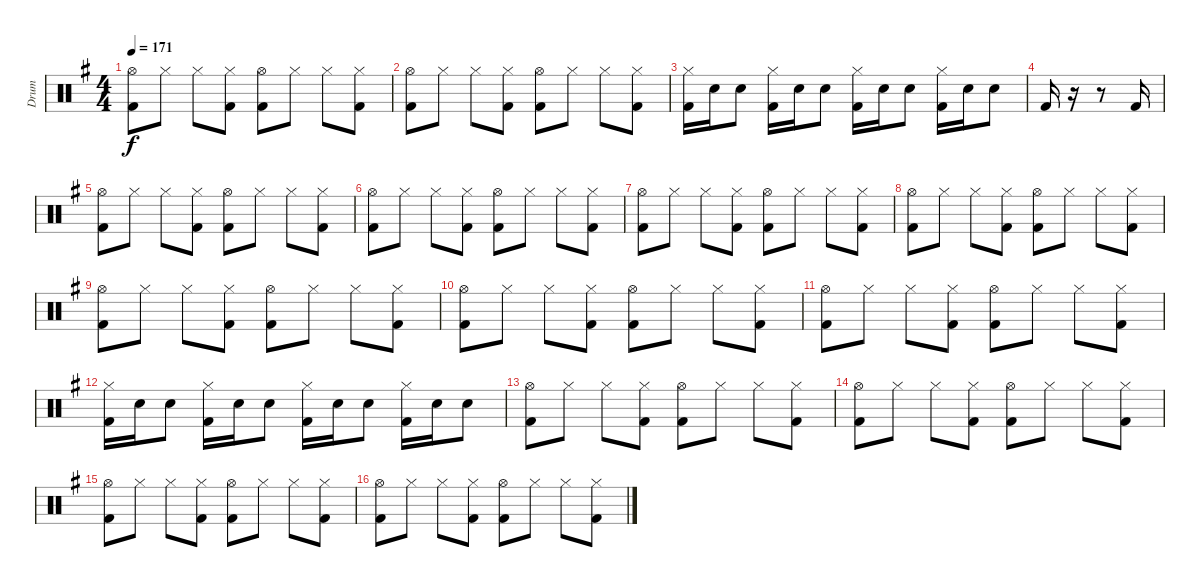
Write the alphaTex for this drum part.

\track ("Drum" "Drum") {instrument percussion}
\staff {score}
\articulation defaults
\ts (4 4)
\tempo 171
\clef neutral
\ks g
("Hi-Hat (open)" "Kick (hit) 2").8{dy f} "Hi-Hat (closed)".8 "Hi-Hat (closed)".8 ("Hi-Hat (closed)" "Kick (hit) 2").8 ("Hi-Hat (open)" "Kick (hit) 2").8 "Hi-Hat (closed)".8 "Hi-Hat (closed)".8 ("Hi-Hat (closed)" "Kick (hit) 2").8 |
("Hi-Hat (open)" "Kick (hit) 2").8 "Hi-Hat (closed)".8 "Hi-Hat (closed)".8 ("Hi-Hat (closed)" "Kick (hit) 2").8 ("Hi-Hat (open)" "Kick (hit) 2").8 "Hi-Hat (closed)".8 "Hi-Hat (closed)".8 ("Hi-Hat (closed)" "Kick (hit) 2").8 |
("Hi-Hat (closed)" "Kick (hit) 2").16 "Snare (hit) 2".16 "Snare (hit) 2".8 ("Hi-Hat (closed)" "Kick (hit) 2").16 "Snare (hit) 2".16 "Snare (hit) 2".8 ("Hi-Hat (closed)" "Kick (hit) 2").16 "Snare (hit) 2".16 "Snare (hit) 2".8 ("Hi-Hat (closed)" "Kick (hit) 2").16 "Snare (hit) 2".16 "Snare (hit) 2".8 |
"Kick (hit) 2".16 r.16 r.8 "Kick (hit) 2".16 |
("Hi-Hat (open)" "Kick (hit) 2").8 "Hi-Hat (closed)".8 "Hi-Hat (closed)".8 ("Hi-Hat (closed)" "Kick (hit) 2").8 ("Hi-Hat (open)" "Kick (hit) 2").8 "Hi-Hat (closed)".8 "Hi-Hat (closed)".8 ("Hi-Hat (closed)" "Kick (hit) 2").8 |
("Hi-Hat (open)" "Kick (hit) 2").8 "Hi-Hat (closed)".8 "Hi-Hat (closed)".8 ("Hi-Hat (closed)" "Kick (hit) 2").8 ("Hi-Hat (open)" "Kick (hit) 2").8 "Hi-Hat (closed)".8 "Hi-Hat (closed)".8 ("Hi-Hat (closed)" "Kick (hit) 2").8 |
("Hi-Hat (open)" "Kick (hit) 2").8 "Hi-Hat (closed)".8 "Hi-Hat (closed)".8 ("Hi-Hat (closed)" "Kick (hit) 2").8 ("Hi-Hat (open)" "Kick (hit) 2").8 "Hi-Hat (closed)".8 "Hi-Hat (closed)".8 ("Hi-Hat (closed)" "Kick (hit) 2").8 |
("Hi-Hat (open)" "Kick (hit) 2").8 "Hi-Hat (closed)".8 "Hi-Hat (closed)".8 ("Hi-Hat (closed)" "Kick (hit) 2").8 ("Hi-Hat (open)" "Kick (hit) 2").8 "Hi-Hat (closed)".8 "Hi-Hat (closed)".8 ("Hi-Hat (closed)" "Kick (hit) 2").8 |
("Hi-Hat (open)" "Kick (hit) 2").8 "Hi-Hat (closed)".8 "Hi-Hat (closed)".8 ("Hi-Hat (closed)" "Kick (hit) 2").8 ("Hi-Hat (open)" "Kick (hit) 2").8 "Hi-Hat (closed)".8 "Hi-Hat (closed)".8 ("Hi-Hat (closed)" "Kick (hit) 2").8 |
("Hi-Hat (open)" "Kick (hit) 2").8 "Hi-Hat (closed)".8 "Hi-Hat (closed)".8 ("Hi-Hat (closed)" "Kick (hit) 2").8 ("Hi-Hat (open)" "Kick (hit) 2").8 "Hi-Hat (closed)".8 "Hi-Hat (closed)".8 ("Hi-Hat (closed)" "Kick (hit) 2").8 |
("Hi-Hat (open)" "Kick (hit) 2").8 "Hi-Hat (closed)".8 "Hi-Hat (closed)".8 ("Hi-Hat (closed)" "Kick (hit) 2").8 ("Hi-Hat (open)" "Kick (hit) 2").8 "Hi-Hat (closed)".8 "Hi-Hat (closed)".8 ("Hi-Hat (closed)" "Kick (hit) 2").8 |
("Hi-Hat (closed)" "Kick (hit) 2").16 "Snare (hit) 2".16 "Snare (hit) 2".8 ("Hi-Hat (closed)" "Kick (hit) 2").16 "Snare (hit) 2".16 "Snare (hit) 2".8 ("Hi-Hat (closed)" "Kick (hit) 2").16 "Snare (hit) 2".16 "Snare (hit) 2".8 ("Hi-Hat (closed)" "Kick (hit) 2").16 "Snare (hit) 2".16 "Snare (hit) 2".8 |
("Hi-Hat (open)" "Kick (hit) 2").8 "Hi-Hat (closed)".8 "Hi-Hat (closed)".8 ("Hi-Hat (closed)" "Kick (hit) 2").8 ("Hi-Hat (open)" "Kick (hit) 2").8 "Hi-Hat (closed)".8 "Hi-Hat (closed)".8 ("Hi-Hat (closed)" "Kick (hit) 2").8 |
("Hi-Hat (open)" "Kick (hit) 2").8 "Hi-Hat (closed)".8 "Hi-Hat (closed)".8 ("Hi-Hat (closed)" "Kick (hit) 2").8 ("Hi-Hat (open)" "Kick (hit) 2").8 "Hi-Hat (closed)".8 "Hi-Hat (closed)".8 ("Hi-Hat (closed)" "Kick (hit) 2").8 |
("Hi-Hat (open)" "Kick (hit) 2").8 "Hi-Hat (closed)".8 "Hi-Hat (closed)".8 ("Hi-Hat (closed)" "Kick (hit) 2").8 ("Hi-Hat (open)" "Kick (hit) 2").8 "Hi-Hat (closed)".8 "Hi-Hat (closed)".8 ("Hi-Hat (closed)" "Kick (hit) 2").8 |
("Hi-Hat (open)" "Kick (hit) 2").8 "Hi-Hat (closed)".8 "Hi-Hat (closed)".8 ("Hi-Hat (closed)" "Kick (hit) 2").8 ("Hi-Hat (open)" "Kick (hit) 2").8 "Hi-Hat (closed)".8 "Hi-Hat (closed)".8 ("Hi-Hat (closed)" "Kick (hit) 2").8
